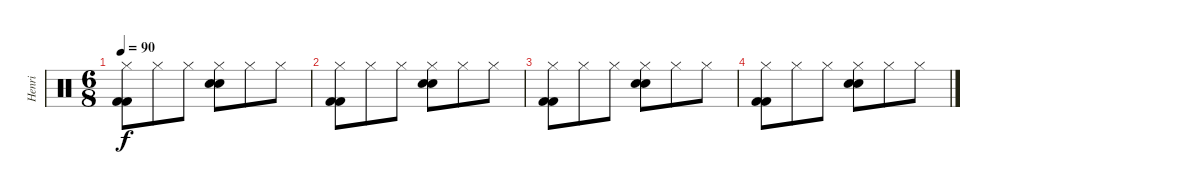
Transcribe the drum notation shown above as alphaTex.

\track ("Henri" "Henri") {instrument percussion}
\staff {score}
\articulation defaults
\ts (6 8)
\tempo 90
\clef neutral
\ks c
("Hi-Hat (closed)" "Kick (hit) 2" "Kick (hit) 2").8{dy f} "Hi-Hat (closed)".8 "Hi-Hat (closed)".8 ("Hi-Hat (closed)" "Electric Snare (hit)" "Electric Snare (hit)").8 "Hi-Hat (closed)".8 "Hi-Hat (closed)".8 |
("Hi-Hat (closed)" "Kick (hit) 2" "Kick (hit) 2").8 "Hi-Hat (closed)".8 "Hi-Hat (closed)".8 ("Hi-Hat (closed)" "Electric Snare (hit)" "Electric Snare (hit)").8 "Hi-Hat (closed)".8 "Hi-Hat (closed)".8 |
("Hi-Hat (closed)" "Kick (hit) 2" "Kick (hit) 2").8 "Hi-Hat (closed)".8 "Hi-Hat (closed)".8 ("Hi-Hat (closed)" "Electric Snare (hit)" "Electric Snare (hit)").8 "Hi-Hat (closed)".8 "Hi-Hat (closed)".8 |
("Hi-Hat (closed)" "Kick (hit) 2" "Kick (hit) 2").8 "Hi-Hat (closed)".8 "Hi-Hat (closed)".8 ("Hi-Hat (closed)" "Electric Snare (hit)" "Electric Snare (hit)").8 "Hi-Hat (closed)".8 "Hi-Hat (closed)".8
